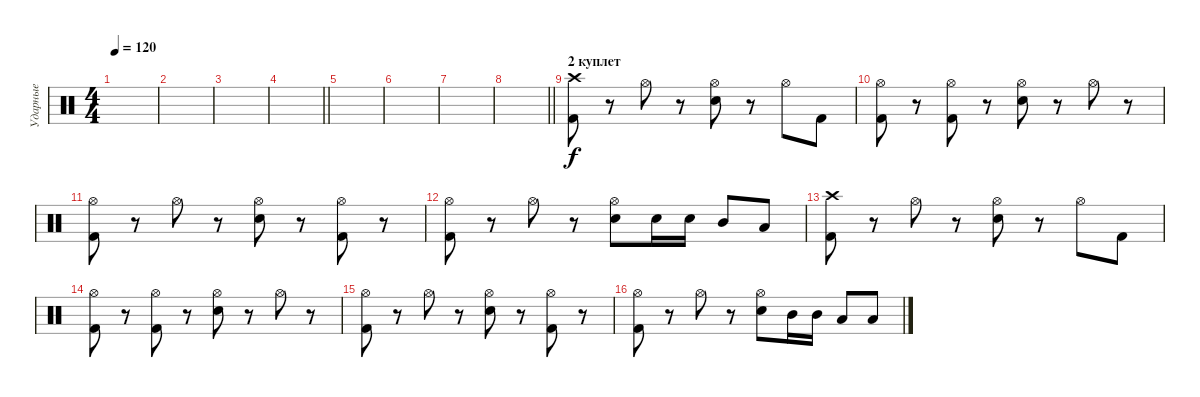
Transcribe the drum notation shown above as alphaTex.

\track ("Ударные" "Ударные") {instrument percussion}
\staff {score}
\articulation defaults
\ts (4 4)
\section ("" "")
\tempo 120
\clef neutral
\ks c
|
|
|
\barLineRight lightlight
|
|
|
|
\barLineRight lightlight
|
\section ("" "2 куплет")
("Kick (hit) 2" "Crash high (hit)").8 r.8 "Hi-Hat (open)".8 r.8 ("Snare (hit) 2" "Hi-Hat (open)").8 r.8 "Hi-Hat (open)".8 "Kick (hit) 2".8 |
("Kick (hit) 2" "Hi-Hat (open)").8 r.8 ("Kick (hit) 2" "Hi-Hat (open)").8 r.8 ("Snare (hit) 2" "Hi-Hat (open)").8 r.8 "Hi-Hat (open)".8 r.8 |
("Kick (hit) 2" "Hi-Hat (open)").8 r.8 "Hi-Hat (open)".8 r.8 ("Snare (hit) 2" "Hi-Hat (open)").8 r.8 ("Kick (hit) 2" "Hi-Hat (open)").8 r.8 |
("Kick (hit) 2" "Hi-Hat (open)").8 r.8 "Hi-Hat (open)".8 r.8 ("Snare (hit) 2" "Hi-Hat (open)").8 "Snare (hit) 2".16 "Snare (hit) 2".16 "Mid Tom (hit)".8 "Low Tom (hit)".8 |
("Kick (hit) 2" "Crash high (hit)").8 r.8 "Hi-Hat (open)".8 r.8 ("Snare (hit) 2" "Hi-Hat (open)").8 r.8 "Hi-Hat (open)".8 "Kick (hit) 2".8 |
("Kick (hit) 2" "Hi-Hat (open)").8 r.8 ("Kick (hit) 2" "Hi-Hat (open)").8 r.8 ("Snare (hit) 2" "Hi-Hat (open)").8 r.8 "Hi-Hat (open)".8 r.8 |
("Kick (hit) 2" "Hi-Hat (open)").8 r.8 "Hi-Hat (open)".8 r.8 ("Snare (hit) 2" "Hi-Hat (open)").8 r.8 ("Kick (hit) 2" "Hi-Hat (open)").8 r.8 |
("Kick (hit) 2" "Hi-Hat (open)").8 r.8 "Hi-Hat (open)".8 r.8 ("Snare (hit) 2" "Hi-Hat (open)").8 "Mid Tom (hit)".16 "Mid Tom (hit)".16 "Low Tom (hit)".8 "Low Tom (hit)".8
